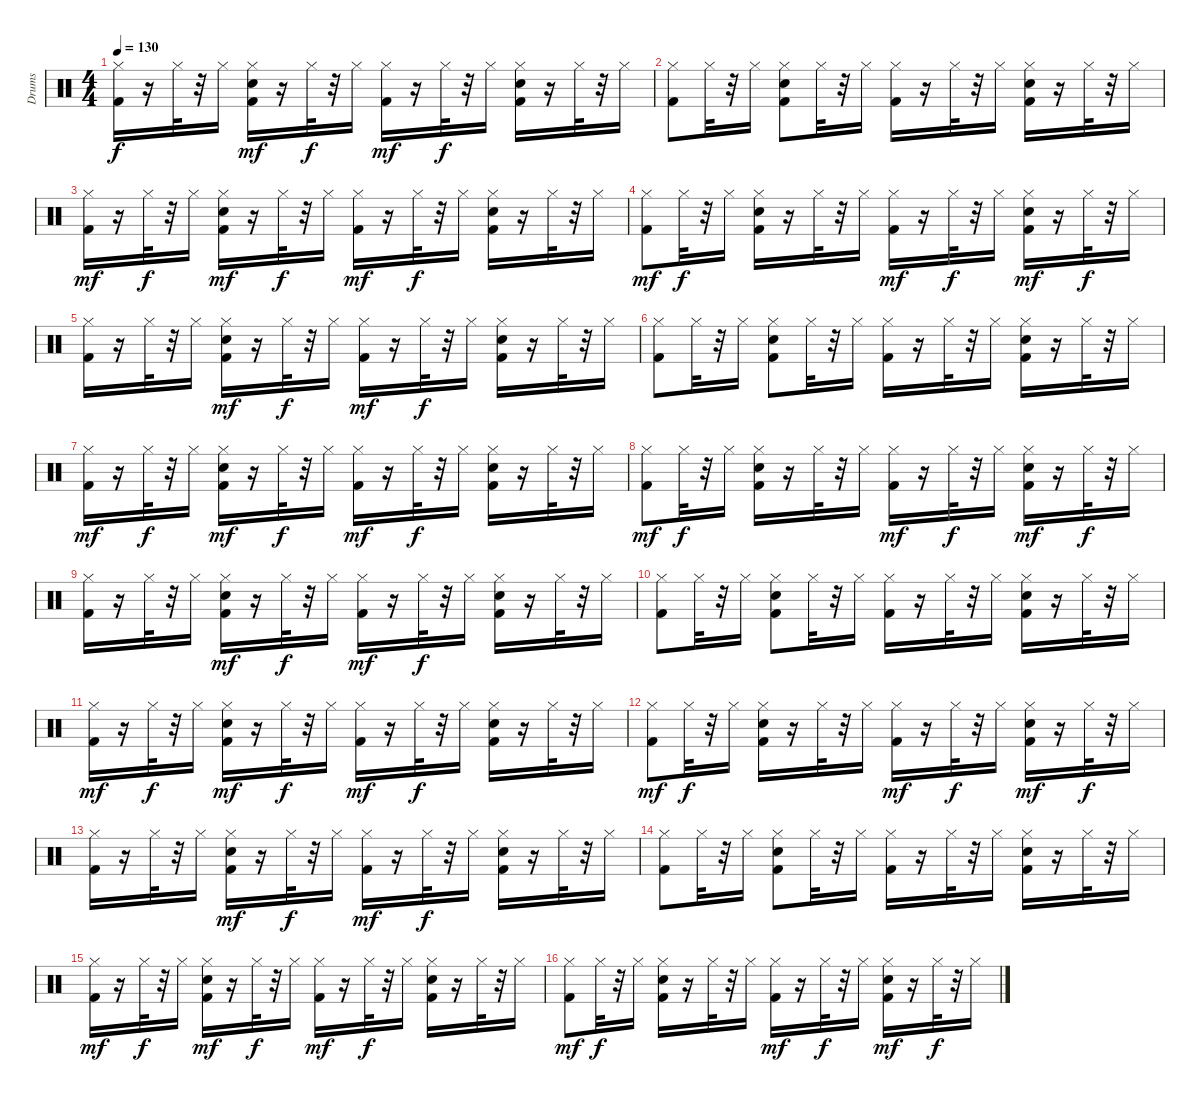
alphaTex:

\track ("Drums" "Drums") {instrument percussion}
\staff {score}
\articulation defaults
\ts (4 4)
\tempo 130
\clef neutral
\ks c
("Kick (hit) 2" "Hi-Hat (closed)").16{dy f} r.16 "Hi-Hat (closed)".32 r.32 "Hi-Hat (closed)".16 ("Kick (hit) 2" "Snare (hit) 2" "Hi-Hat (closed)").16{dy mf} r.16 "Hi-Hat (closed)".32{dy f} r.32 "Hi-Hat (closed)".16 ("Kick (hit) 2" "Hi-Hat (closed)").16{dy mf} r.16 "Hi-Hat (closed)".32{dy f} r.32 "Hi-Hat (closed)".16 ("Snare (hit) 2" "Kick (hit) 2" "Hi-Hat (closed)").16 r.16 "Hi-Hat (closed)".32 r.32 "Hi-Hat (closed)".16 |
("Hi-Hat (closed)" "Kick (hit) 2").8 "Hi-Hat (closed)".32 r.32 "Hi-Hat (closed)".16 ("Hi-Hat (closed)" "Kick (hit) 2" "Snare (hit) 2").8 "Hi-Hat (closed)".32 r.32 "Hi-Hat (closed)".16 ("Hi-Hat (closed)" "Kick (hit) 2").16 r.16 "Hi-Hat (closed)".32 r.32 "Hi-Hat (closed)".16 ("Hi-Hat (closed)" "Snare (hit) 2" "Kick (hit) 2").16 r.16 "Hi-Hat (closed)".32 r.32 "Hi-Hat (closed)".16 |
("Kick (hit) 2" "Hi-Hat (closed)").16{dy mf} r.16 "Hi-Hat (closed)".32{dy f} r.32 "Hi-Hat (closed)".16 ("Snare (hit) 2" "Kick (hit) 2" "Hi-Hat (closed)").16{dy mf} r.16 "Hi-Hat (closed)".32{dy f} r.32 "Hi-Hat (closed)".16 ("Kick (hit) 2" "Hi-Hat (closed)").16{dy mf} r.16 "Hi-Hat (closed)".32{dy f} r.32 "Hi-Hat (closed)".16 ("Snare (hit) 2" "Kick (hit) 2" "Hi-Hat (closed)").16 r.16 "Hi-Hat (closed)".32 r.32 "Hi-Hat (closed)".16 |
("Kick (hit) 2" "Hi-Hat (closed)").8{dy mf} "Hi-Hat (closed)".32{dy f} r.32 "Hi-Hat (closed)".16 ("Snare (hit) 2" "Kick (hit) 2" "Hi-Hat (closed)").16 r.16 "Hi-Hat (closed)".32 r.32 "Hi-Hat (closed)".16 ("Kick (hit) 2" "Hi-Hat (closed)").16{dy mf} r.16 "Hi-Hat (closed)".32{dy f} r.32 "Hi-Hat (closed)".16 ("Snare (hit) 2" "Kick (hit) 2" "Hi-Hat (closed)").16{dy mf} r.16 "Hi-Hat (closed)".32{dy f} r.32 "Hi-Hat (closed)".16 |
("Kick (hit) 2" "Hi-Hat (closed)").16 r.16 "Hi-Hat (closed)".32 r.32 "Hi-Hat (closed)".16 ("Kick (hit) 2" "Snare (hit) 2" "Hi-Hat (closed)").16{dy mf} r.16 "Hi-Hat (closed)".32{dy f} r.32 "Hi-Hat (closed)".16 ("Kick (hit) 2" "Hi-Hat (closed)").16{dy mf} r.16 "Hi-Hat (closed)".32{dy f} r.32 "Hi-Hat (closed)".16 ("Snare (hit) 2" "Kick (hit) 2" "Hi-Hat (closed)").16 r.16 "Hi-Hat (closed)".32 r.32 "Hi-Hat (closed)".16 |
("Hi-Hat (closed)" "Kick (hit) 2").8 "Hi-Hat (closed)".32 r.32 "Hi-Hat (closed)".16 ("Hi-Hat (closed)" "Kick (hit) 2" "Snare (hit) 2").8 "Hi-Hat (closed)".32 r.32 "Hi-Hat (closed)".16 ("Hi-Hat (closed)" "Kick (hit) 2").16 r.16 "Hi-Hat (closed)".32 r.32 "Hi-Hat (closed)".16 ("Hi-Hat (closed)" "Snare (hit) 2" "Kick (hit) 2").16 r.16 "Hi-Hat (closed)".32 r.32 "Hi-Hat (closed)".16 |
("Kick (hit) 2" "Hi-Hat (closed)").16{dy mf} r.16 "Hi-Hat (closed)".32{dy f} r.32 "Hi-Hat (closed)".16 ("Snare (hit) 2" "Kick (hit) 2" "Hi-Hat (closed)").16{dy mf} r.16 "Hi-Hat (closed)".32{dy f} r.32 "Hi-Hat (closed)".16 ("Kick (hit) 2" "Hi-Hat (closed)").16{dy mf} r.16 "Hi-Hat (closed)".32{dy f} r.32 "Hi-Hat (closed)".16 ("Snare (hit) 2" "Kick (hit) 2" "Hi-Hat (closed)").16 r.16 "Hi-Hat (closed)".32 r.32 "Hi-Hat (closed)".16 |
("Kick (hit) 2" "Hi-Hat (closed)").8{dy mf} "Hi-Hat (closed)".32{dy f} r.32 "Hi-Hat (closed)".16 ("Snare (hit) 2" "Kick (hit) 2" "Hi-Hat (closed)").16 r.16 "Hi-Hat (closed)".32 r.32 "Hi-Hat (closed)".16 ("Kick (hit) 2" "Hi-Hat (closed)").16{dy mf} r.16 "Hi-Hat (closed)".32{dy f} r.32 "Hi-Hat (closed)".16 ("Snare (hit) 2" "Kick (hit) 2" "Hi-Hat (closed)").16{dy mf} r.16 "Hi-Hat (closed)".32{dy f} r.32 "Hi-Hat (closed)".16 |
("Kick (hit) 2" "Hi-Hat (closed)").16 r.16 "Hi-Hat (closed)".32 r.32 "Hi-Hat (closed)".16 ("Kick (hit) 2" "Snare (hit) 2" "Hi-Hat (closed)").16{dy mf} r.16 "Hi-Hat (closed)".32{dy f} r.32 "Hi-Hat (closed)".16 ("Kick (hit) 2" "Hi-Hat (closed)").16{dy mf} r.16 "Hi-Hat (closed)".32{dy f} r.32 "Hi-Hat (closed)".16 ("Snare (hit) 2" "Kick (hit) 2" "Hi-Hat (closed)").16 r.16 "Hi-Hat (closed)".32 r.32 "Hi-Hat (closed)".16 |
("Hi-Hat (closed)" "Kick (hit) 2").8 "Hi-Hat (closed)".32 r.32 "Hi-Hat (closed)".16 ("Hi-Hat (closed)" "Kick (hit) 2" "Snare (hit) 2").8 "Hi-Hat (closed)".32 r.32 "Hi-Hat (closed)".16 ("Hi-Hat (closed)" "Kick (hit) 2").16 r.16 "Hi-Hat (closed)".32 r.32 "Hi-Hat (closed)".16 ("Hi-Hat (closed)" "Snare (hit) 2" "Kick (hit) 2").16 r.16 "Hi-Hat (closed)".32 r.32 "Hi-Hat (closed)".16 |
("Kick (hit) 2" "Hi-Hat (closed)").16{dy mf} r.16 "Hi-Hat (closed)".32{dy f} r.32 "Hi-Hat (closed)".16 ("Snare (hit) 2" "Kick (hit) 2" "Hi-Hat (closed)").16{dy mf} r.16 "Hi-Hat (closed)".32{dy f} r.32 "Hi-Hat (closed)".16 ("Kick (hit) 2" "Hi-Hat (closed)").16{dy mf} r.16 "Hi-Hat (closed)".32{dy f} r.32 "Hi-Hat (closed)".16 ("Snare (hit) 2" "Kick (hit) 2" "Hi-Hat (closed)").16 r.16 "Hi-Hat (closed)".32 r.32 "Hi-Hat (closed)".16 |
("Kick (hit) 2" "Hi-Hat (closed)").8{dy mf} "Hi-Hat (closed)".32{dy f} r.32 "Hi-Hat (closed)".16 ("Snare (hit) 2" "Kick (hit) 2" "Hi-Hat (closed)").16 r.16 "Hi-Hat (closed)".32 r.32 "Hi-Hat (closed)".16 ("Kick (hit) 2" "Hi-Hat (closed)").16{dy mf} r.16 "Hi-Hat (closed)".32{dy f} r.32 "Hi-Hat (closed)".16 ("Snare (hit) 2" "Kick (hit) 2" "Hi-Hat (closed)").16{dy mf} r.16 "Hi-Hat (closed)".32{dy f} r.32 "Hi-Hat (closed)".16 |
("Kick (hit) 2" "Hi-Hat (closed)").16 r.16 "Hi-Hat (closed)".32 r.32 "Hi-Hat (closed)".16 ("Kick (hit) 2" "Snare (hit) 2" "Hi-Hat (closed)").16{dy mf} r.16 "Hi-Hat (closed)".32{dy f} r.32 "Hi-Hat (closed)".16 ("Kick (hit) 2" "Hi-Hat (closed)").16{dy mf} r.16 "Hi-Hat (closed)".32{dy f} r.32 "Hi-Hat (closed)".16 ("Snare (hit) 2" "Kick (hit) 2" "Hi-Hat (closed)").16 r.16 "Hi-Hat (closed)".32 r.32 "Hi-Hat (closed)".16 |
("Hi-Hat (closed)" "Kick (hit) 2").8 "Hi-Hat (closed)".32 r.32 "Hi-Hat (closed)".16 ("Hi-Hat (closed)" "Kick (hit) 2" "Snare (hit) 2").8 "Hi-Hat (closed)".32 r.32 "Hi-Hat (closed)".16 ("Hi-Hat (closed)" "Kick (hit) 2").16 r.16 "Hi-Hat (closed)".32 r.32 "Hi-Hat (closed)".16 ("Hi-Hat (closed)" "Snare (hit) 2" "Kick (hit) 2").16 r.16 "Hi-Hat (closed)".32 r.32 "Hi-Hat (closed)".16 |
("Kick (hit) 2" "Hi-Hat (closed)").16{dy mf} r.16 "Hi-Hat (closed)".32{dy f} r.32 "Hi-Hat (closed)".16 ("Snare (hit) 2" "Kick (hit) 2" "Hi-Hat (closed)").16{dy mf} r.16 "Hi-Hat (closed)".32{dy f} r.32 "Hi-Hat (closed)".16 ("Kick (hit) 2" "Hi-Hat (closed)").16{dy mf} r.16 "Hi-Hat (closed)".32{dy f} r.32 "Hi-Hat (closed)".16 ("Snare (hit) 2" "Kick (hit) 2" "Hi-Hat (closed)").16 r.16 "Hi-Hat (closed)".32 r.32 "Hi-Hat (closed)".16 |
("Kick (hit) 2" "Hi-Hat (closed)").8{dy mf} "Hi-Hat (closed)".32{dy f} r.32 "Hi-Hat (closed)".16 ("Snare (hit) 2" "Kick (hit) 2" "Hi-Hat (closed)").16 r.16 "Hi-Hat (closed)".32 r.32 "Hi-Hat (closed)".16 ("Kick (hit) 2" "Hi-Hat (closed)").16{dy mf} r.16 "Hi-Hat (closed)".32{dy f} r.32 "Hi-Hat (closed)".16 ("Snare (hit) 2" "Kick (hit) 2" "Hi-Hat (closed)").16{dy mf} r.16 "Hi-Hat (closed)".32{dy f} r.32 "Hi-Hat (closed)".16
